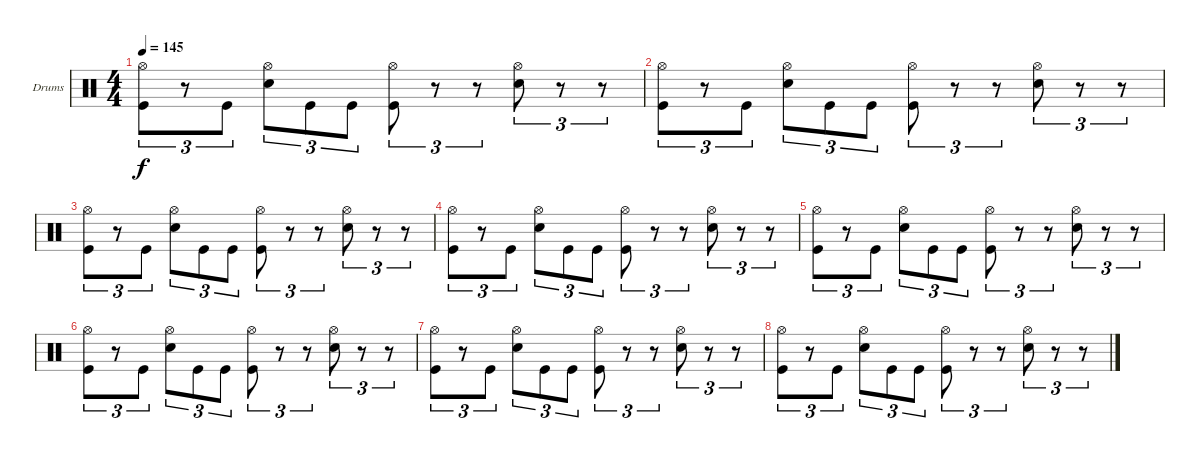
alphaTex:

\bracketExtendMode groupsimilarinstruments
\firstSystemTrackNameOrientation horizontal
\otherSystemsTrackNameOrientation horizontal
\track ("FREDRIK ANDERSSON" "Drums") {instrument percussion}
\staff {score}
\articulation defaults
\ts (4 4)
\tempo 145
\clef neutral
\ks c
("Hi-Hat (open)" "Kick (hit)").8{tu (3 2) dy f} r.8{tu (3 2)} "Kick (hit)".8{tu (3 2)} ("Hi-Hat (open)" "Snare (hit) 2").8{tu (3 2)} "Kick (hit)".8{tu (3 2)} "Kick (hit)".8{tu (3 2)} ("Hi-Hat (open)" "Kick (hit)").8{tu (3 2)} r.8{tu (3 2)} r.8{tu (3 2)} ("Hi-Hat (open)" "Snare (hit) 2").8{tu (3 2)} r.8{tu (3 2)} r.8{tu (3 2)} |
("Hi-Hat (open)" "Kick (hit)").8{tu (3 2)} r.8{tu (3 2)} "Kick (hit)".8{tu (3 2)} ("Hi-Hat (open)" "Snare (hit) 2").8{tu (3 2)} "Kick (hit)".8{tu (3 2)} "Kick (hit)".8{tu (3 2)} ("Hi-Hat (open)" "Kick (hit)").8{tu (3 2)} r.8{tu (3 2)} r.8{tu (3 2)} ("Hi-Hat (open)" "Snare (hit) 2").8{tu (3 2)} r.8{tu (3 2)} r.8{tu (3 2)} |
("Hi-Hat (open)" "Kick (hit)").8{tu (3 2)} r.8{tu (3 2)} "Kick (hit)".8{tu (3 2)} ("Hi-Hat (open)" "Snare (hit) 2").8{tu (3 2)} "Kick (hit)".8{tu (3 2)} "Kick (hit)".8{tu (3 2)} ("Hi-Hat (open)" "Kick (hit)").8{tu (3 2)} r.8{tu (3 2)} r.8{tu (3 2)} ("Hi-Hat (open)" "Snare (hit) 2").8{tu (3 2)} r.8{tu (3 2)} r.8{tu (3 2)} |
("Hi-Hat (open)" "Kick (hit)").8{tu (3 2)} r.8{tu (3 2)} "Kick (hit)".8{tu (3 2)} ("Hi-Hat (open)" "Snare (hit) 2").8{tu (3 2)} "Kick (hit)".8{tu (3 2)} "Kick (hit)".8{tu (3 2)} ("Hi-Hat (open)" "Kick (hit)").8{tu (3 2)} r.8{tu (3 2)} r.8{tu (3 2)} ("Hi-Hat (open)" "Snare (hit) 2").8{tu (3 2)} r.8{tu (3 2)} r.8{tu (3 2)} |
("Hi-Hat (open)" "Kick (hit)").8{tu (3 2)} r.8{tu (3 2)} "Kick (hit)".8{tu (3 2)} ("Hi-Hat (open)" "Snare (hit) 2").8{tu (3 2)} "Kick (hit)".8{tu (3 2)} "Kick (hit)".8{tu (3 2)} ("Hi-Hat (open)" "Kick (hit)").8{tu (3 2)} r.8{tu (3 2)} r.8{tu (3 2)} ("Hi-Hat (open)" "Snare (hit) 2").8{tu (3 2)} r.8{tu (3 2)} r.8{tu (3 2)} |
("Hi-Hat (open)" "Kick (hit)").8{tu (3 2)} r.8{tu (3 2)} "Kick (hit)".8{tu (3 2)} ("Hi-Hat (open)" "Snare (hit) 2").8{tu (3 2)} "Kick (hit)".8{tu (3 2)} "Kick (hit)".8{tu (3 2)} ("Hi-Hat (open)" "Kick (hit)").8{tu (3 2)} r.8{tu (3 2)} r.8{tu (3 2)} ("Hi-Hat (open)" "Snare (hit) 2").8{tu (3 2)} r.8{tu (3 2)} r.8{tu (3 2)} |
("Hi-Hat (open)" "Kick (hit)").8{tu (3 2)} r.8{tu (3 2)} "Kick (hit)".8{tu (3 2)} ("Hi-Hat (open)" "Snare (hit) 2").8{tu (3 2)} "Kick (hit)".8{tu (3 2)} "Kick (hit)".8{tu (3 2)} ("Hi-Hat (open)" "Kick (hit)").8{tu (3 2)} r.8{tu (3 2)} r.8{tu (3 2)} ("Hi-Hat (open)" "Snare (hit) 2").8{tu (3 2)} r.8{tu (3 2)} r.8{tu (3 2)} |
("Hi-Hat (open)" "Kick (hit)").8{tu (3 2)} r.8{tu (3 2)} "Kick (hit)".8{tu (3 2)} ("Hi-Hat (open)" "Snare (hit) 2").8{tu (3 2)} "Kick (hit)".8{tu (3 2)} "Kick (hit)".8{tu (3 2)} ("Hi-Hat (open)" "Kick (hit)").8{tu (3 2)} r.8{tu (3 2)} r.8{tu (3 2)} ("Hi-Hat (open)" "Snare (hit) 2").8{tu (3 2)} r.8{tu (3 2)} r.8{tu (3 2)}
